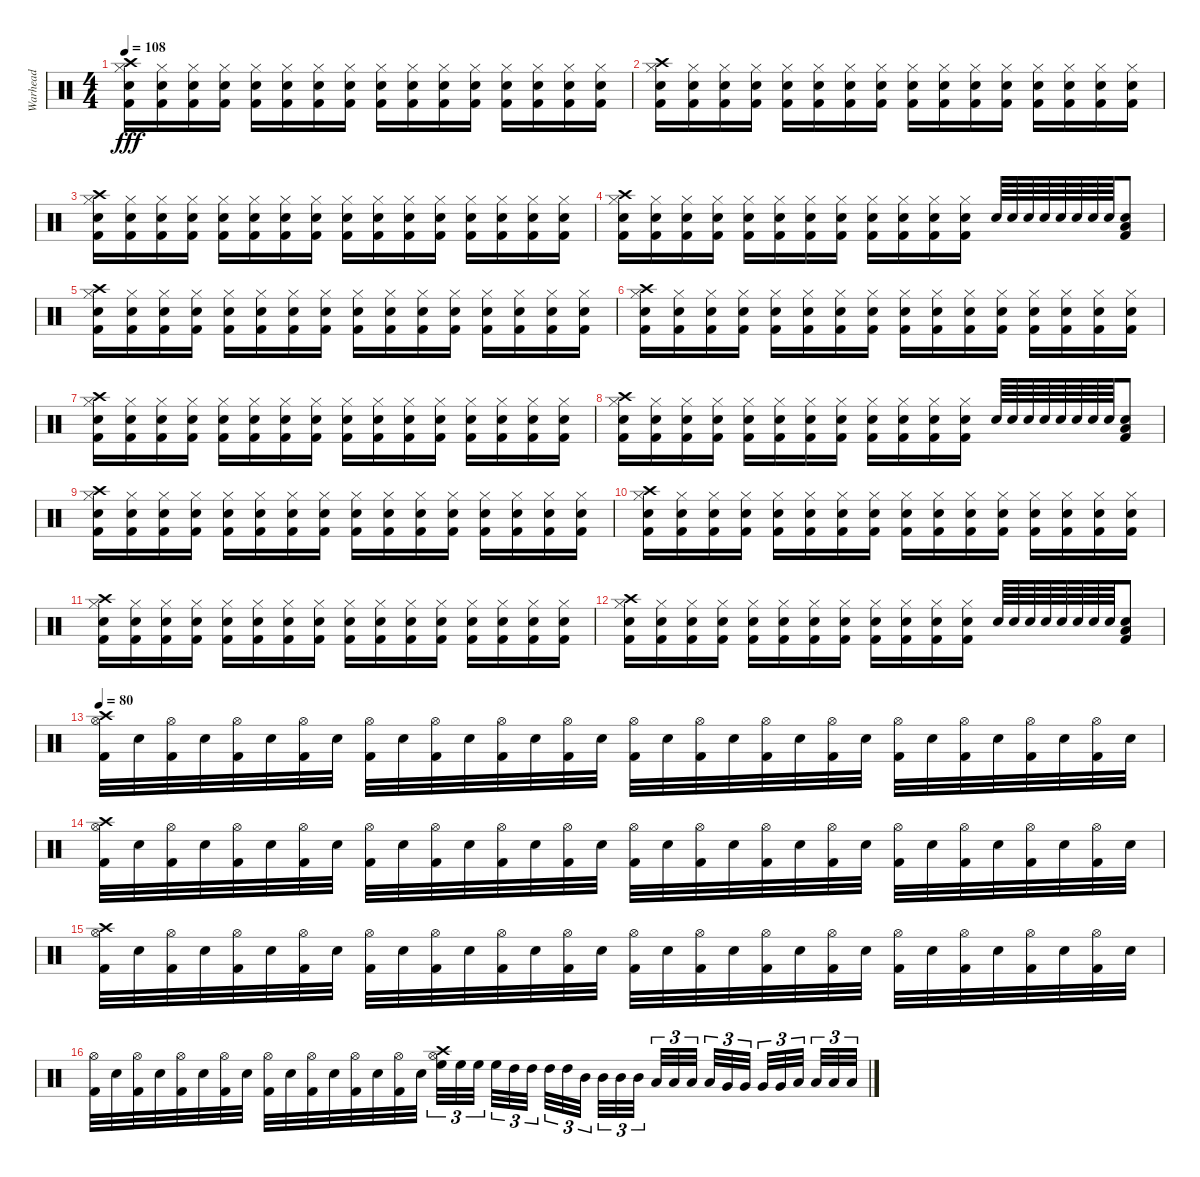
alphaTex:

\track ("Warhead" "Warhead") {instrument percussion}
\staff {score}
\articulation defaults
\ts (4 4)
\tempo 108
\clef neutral
\ks c
("Kick (hit) 2" "Electric Snare (hit)" "Crash high (hit)" "Hi-Hat (closed)").16{dy fff} ("Kick (hit) 2" "Electric Snare (hit)" "Hi-Hat (closed)").16 ("Kick (hit) 2" "Electric Snare (hit)" "Hi-Hat (closed)").16 ("Kick (hit) 2" "Electric Snare (hit)" "Hi-Hat (closed)").16 ("Kick (hit) 2" "Electric Snare (hit)" "Hi-Hat (closed)").16 ("Kick (hit) 2" "Electric Snare (hit)" "Hi-Hat (closed)").16 ("Kick (hit) 2" "Electric Snare (hit)" "Hi-Hat (closed)").16 ("Kick (hit) 2" "Electric Snare (hit)" "Hi-Hat (closed)").16 ("Kick (hit) 2" "Electric Snare (hit)" "Hi-Hat (closed)").16 ("Kick (hit) 2" "Electric Snare (hit)" "Hi-Hat (closed)").16 ("Kick (hit) 2" "Electric Snare (hit)" "Hi-Hat (closed)").16 ("Kick (hit) 2" "Electric Snare (hit)" "Hi-Hat (closed)").16 ("Kick (hit) 2" "Electric Snare (hit)" "Hi-Hat (closed)").16 ("Kick (hit) 2" "Electric Snare (hit)" "Hi-Hat (closed)").16 ("Kick (hit) 2" "Electric Snare (hit)" "Hi-Hat (closed)").16 ("Kick (hit) 2" "Electric Snare (hit)" "Hi-Hat (closed)").16 |
("Kick (hit) 2" "Electric Snare (hit)" "Crash high (hit)" "Hi-Hat (closed)").16 ("Kick (hit) 2" "Electric Snare (hit)" "Hi-Hat (closed)").16 ("Kick (hit) 2" "Electric Snare (hit)" "Hi-Hat (closed)").16 ("Kick (hit) 2" "Electric Snare (hit)" "Hi-Hat (closed)").16 ("Kick (hit) 2" "Electric Snare (hit)" "Hi-Hat (closed)").16 ("Kick (hit) 2" "Electric Snare (hit)" "Hi-Hat (closed)").16 ("Kick (hit) 2" "Electric Snare (hit)" "Hi-Hat (closed)").16 ("Kick (hit) 2" "Electric Snare (hit)" "Hi-Hat (closed)").16 ("Kick (hit) 2" "Electric Snare (hit)" "Hi-Hat (closed)").16 ("Kick (hit) 2" "Electric Snare (hit)" "Hi-Hat (closed)").16 ("Kick (hit) 2" "Electric Snare (hit)" "Hi-Hat (closed)").16 ("Kick (hit) 2" "Electric Snare (hit)" "Hi-Hat (closed)").16 ("Kick (hit) 2" "Electric Snare (hit)" "Hi-Hat (closed)").16 ("Kick (hit) 2" "Electric Snare (hit)" "Hi-Hat (closed)").16 ("Kick (hit) 2" "Electric Snare (hit)" "Hi-Hat (closed)").16 ("Kick (hit) 2" "Electric Snare (hit)" "Hi-Hat (closed)").16 |
("Kick (hit) 2" "Electric Snare (hit)" "Crash high (hit)" "Hi-Hat (closed)").16 ("Kick (hit) 2" "Electric Snare (hit)" "Hi-Hat (closed)").16 ("Kick (hit) 2" "Electric Snare (hit)" "Hi-Hat (closed)").16 ("Kick (hit) 2" "Electric Snare (hit)" "Hi-Hat (closed)").16 ("Kick (hit) 2" "Electric Snare (hit)" "Hi-Hat (closed)").16 ("Kick (hit) 2" "Electric Snare (hit)" "Hi-Hat (closed)").16 ("Kick (hit) 2" "Electric Snare (hit)" "Hi-Hat (closed)").16 ("Kick (hit) 2" "Electric Snare (hit)" "Hi-Hat (closed)").16 ("Kick (hit) 2" "Electric Snare (hit)" "Hi-Hat (closed)").16 ("Kick (hit) 2" "Electric Snare (hit)" "Hi-Hat (closed)").16 ("Kick (hit) 2" "Electric Snare (hit)" "Hi-Hat (closed)").16 ("Kick (hit) 2" "Electric Snare (hit)" "Hi-Hat (closed)").16 ("Kick (hit) 2" "Electric Snare (hit)" "Hi-Hat (closed)").16 ("Kick (hit) 2" "Electric Snare (hit)" "Hi-Hat (closed)").16 ("Kick (hit) 2" "Electric Snare (hit)" "Hi-Hat (closed)").16 ("Kick (hit) 2" "Electric Snare (hit)" "Hi-Hat (closed)").16 |
("Kick (hit) 2" "Electric Snare (hit)" "Crash high (hit)" "Hi-Hat (closed)").16 ("Kick (hit) 2" "Electric Snare (hit)" "Hi-Hat (closed)").16 ("Kick (hit) 2" "Electric Snare (hit)" "Hi-Hat (closed)").16 ("Kick (hit) 2" "Electric Snare (hit)" "Hi-Hat (closed)").16 ("Kick (hit) 2" "Electric Snare (hit)" "Hi-Hat (closed)").16 ("Kick (hit) 2" "Electric Snare (hit)" "Hi-Hat (closed)").16 ("Kick (hit) 2" "Electric Snare (hit)" "Hi-Hat (closed)").16 ("Kick (hit) 2" "Electric Snare (hit)" "Hi-Hat (closed)").16 ("Kick (hit) 2" "Electric Snare (hit)" "Hi-Hat (closed)").16 ("Kick (hit) 2" "Electric Snare (hit)" "Hi-Hat (closed)").16 ("Kick (hit) 2" "Electric Snare (hit)" "Hi-Hat (closed)").16 ("Kick (hit) 2" "Electric Snare (hit)" "Hi-Hat (closed)").16 "Electric Snare (hit)".64 "Electric Snare (hit)".64 "Electric Snare (hit)".64 "Electric Snare (hit)".64 "Electric Snare (hit)".64 "Electric Snare (hit)".64 "Electric Snare (hit)".64 "Electric Snare (hit)".64 ("Kick (hit) 2" "Snare (hit) 2" "Low Tom (hit)").8 |
("Kick (hit) 2" "Electric Snare (hit)" "Crash high (hit)" "Hi-Hat (closed)").16 ("Kick (hit) 2" "Electric Snare (hit)" "Hi-Hat (closed)").16 ("Kick (hit) 2" "Electric Snare (hit)" "Hi-Hat (closed)").16 ("Kick (hit) 2" "Electric Snare (hit)" "Hi-Hat (closed)").16 ("Kick (hit) 2" "Electric Snare (hit)" "Hi-Hat (closed)").16 ("Kick (hit) 2" "Electric Snare (hit)" "Hi-Hat (closed)").16 ("Kick (hit) 2" "Electric Snare (hit)" "Hi-Hat (closed)").16 ("Kick (hit) 2" "Electric Snare (hit)" "Hi-Hat (closed)").16 ("Kick (hit) 2" "Electric Snare (hit)" "Hi-Hat (closed)").16 ("Kick (hit) 2" "Electric Snare (hit)" "Hi-Hat (closed)").16 ("Kick (hit) 2" "Electric Snare (hit)" "Hi-Hat (closed)").16 ("Kick (hit) 2" "Electric Snare (hit)" "Hi-Hat (closed)").16 ("Kick (hit) 2" "Electric Snare (hit)" "Hi-Hat (closed)").16 ("Kick (hit) 2" "Electric Snare (hit)" "Hi-Hat (closed)").16 ("Kick (hit) 2" "Electric Snare (hit)" "Hi-Hat (closed)").16 ("Kick (hit) 2" "Electric Snare (hit)" "Hi-Hat (closed)").16 |
("Kick (hit) 2" "Electric Snare (hit)" "Crash high (hit)" "Hi-Hat (closed)").16 ("Kick (hit) 2" "Electric Snare (hit)" "Hi-Hat (closed)").16 ("Kick (hit) 2" "Electric Snare (hit)" "Hi-Hat (closed)").16 ("Kick (hit) 2" "Electric Snare (hit)" "Hi-Hat (closed)").16 ("Kick (hit) 2" "Electric Snare (hit)" "Hi-Hat (closed)").16 ("Kick (hit) 2" "Electric Snare (hit)" "Hi-Hat (closed)").16 ("Kick (hit) 2" "Electric Snare (hit)" "Hi-Hat (closed)").16 ("Kick (hit) 2" "Electric Snare (hit)" "Hi-Hat (closed)").16 ("Kick (hit) 2" "Electric Snare (hit)" "Hi-Hat (closed)").16 ("Kick (hit) 2" "Electric Snare (hit)" "Hi-Hat (closed)").16 ("Kick (hit) 2" "Electric Snare (hit)" "Hi-Hat (closed)").16 ("Kick (hit) 2" "Electric Snare (hit)" "Hi-Hat (closed)").16 ("Kick (hit) 2" "Electric Snare (hit)" "Hi-Hat (closed)").16 ("Kick (hit) 2" "Electric Snare (hit)" "Hi-Hat (closed)").16 ("Kick (hit) 2" "Electric Snare (hit)" "Hi-Hat (closed)").16 ("Kick (hit) 2" "Electric Snare (hit)" "Hi-Hat (closed)").16 |
("Kick (hit) 2" "Electric Snare (hit)" "Crash high (hit)" "Hi-Hat (closed)").16 ("Kick (hit) 2" "Electric Snare (hit)" "Hi-Hat (closed)").16 ("Kick (hit) 2" "Electric Snare (hit)" "Hi-Hat (closed)").16 ("Kick (hit) 2" "Electric Snare (hit)" "Hi-Hat (closed)").16 ("Kick (hit) 2" "Electric Snare (hit)" "Hi-Hat (closed)").16 ("Kick (hit) 2" "Electric Snare (hit)" "Hi-Hat (closed)").16 ("Kick (hit) 2" "Electric Snare (hit)" "Hi-Hat (closed)").16 ("Kick (hit) 2" "Electric Snare (hit)" "Hi-Hat (closed)").16 ("Kick (hit) 2" "Electric Snare (hit)" "Hi-Hat (closed)").16 ("Kick (hit) 2" "Electric Snare (hit)" "Hi-Hat (closed)").16 ("Kick (hit) 2" "Electric Snare (hit)" "Hi-Hat (closed)").16 ("Kick (hit) 2" "Electric Snare (hit)" "Hi-Hat (closed)").16 ("Kick (hit) 2" "Electric Snare (hit)" "Hi-Hat (closed)").16 ("Kick (hit) 2" "Electric Snare (hit)" "Hi-Hat (closed)").16 ("Kick (hit) 2" "Electric Snare (hit)" "Hi-Hat (closed)").16 ("Kick (hit) 2" "Electric Snare (hit)" "Hi-Hat (closed)").16 |
("Kick (hit) 2" "Electric Snare (hit)" "Crash high (hit)" "Hi-Hat (closed)").16 ("Kick (hit) 2" "Electric Snare (hit)" "Hi-Hat (closed)").16 ("Kick (hit) 2" "Electric Snare (hit)" "Hi-Hat (closed)").16 ("Kick (hit) 2" "Electric Snare (hit)" "Hi-Hat (closed)").16 ("Kick (hit) 2" "Electric Snare (hit)" "Hi-Hat (closed)").16 ("Kick (hit) 2" "Electric Snare (hit)" "Hi-Hat (closed)").16 ("Kick (hit) 2" "Electric Snare (hit)" "Hi-Hat (closed)").16 ("Kick (hit) 2" "Electric Snare (hit)" "Hi-Hat (closed)").16 ("Kick (hit) 2" "Electric Snare (hit)" "Hi-Hat (closed)").16 ("Kick (hit) 2" "Electric Snare (hit)" "Hi-Hat (closed)").16 ("Kick (hit) 2" "Electric Snare (hit)" "Hi-Hat (closed)").16 ("Kick (hit) 2" "Electric Snare (hit)" "Hi-Hat (closed)").16 "Electric Snare (hit)".64 "Electric Snare (hit)".64 "Electric Snare (hit)".64 "Electric Snare (hit)".64 "Electric Snare (hit)".64 "Electric Snare (hit)".64 "Electric Snare (hit)".64 "Electric Snare (hit)".64 ("Kick (hit) 2" "Snare (hit) 2" "Low Tom (hit)").8 |
("Kick (hit) 2" "Electric Snare (hit)" "Crash high (hit)" "Hi-Hat (closed)").16 ("Kick (hit) 2" "Electric Snare (hit)" "Hi-Hat (closed)").16 ("Kick (hit) 2" "Electric Snare (hit)" "Hi-Hat (closed)").16 ("Kick (hit) 2" "Electric Snare (hit)" "Hi-Hat (closed)").16 ("Kick (hit) 2" "Electric Snare (hit)" "Hi-Hat (closed)").16 ("Kick (hit) 2" "Electric Snare (hit)" "Hi-Hat (closed)").16 ("Kick (hit) 2" "Electric Snare (hit)" "Hi-Hat (closed)").16 ("Kick (hit) 2" "Electric Snare (hit)" "Hi-Hat (closed)").16 ("Kick (hit) 2" "Electric Snare (hit)" "Hi-Hat (closed)").16 ("Kick (hit) 2" "Electric Snare (hit)" "Hi-Hat (closed)").16 ("Kick (hit) 2" "Electric Snare (hit)" "Hi-Hat (closed)").16 ("Kick (hit) 2" "Electric Snare (hit)" "Hi-Hat (closed)").16 ("Kick (hit) 2" "Electric Snare (hit)" "Hi-Hat (closed)").16 ("Kick (hit) 2" "Electric Snare (hit)" "Hi-Hat (closed)").16 ("Kick (hit) 2" "Electric Snare (hit)" "Hi-Hat (closed)").16 ("Kick (hit) 2" "Electric Snare (hit)" "Hi-Hat (closed)").16 |
("Kick (hit) 2" "Electric Snare (hit)" "Crash high (hit)" "Hi-Hat (closed)").16 ("Kick (hit) 2" "Electric Snare (hit)" "Hi-Hat (closed)").16 ("Kick (hit) 2" "Electric Snare (hit)" "Hi-Hat (closed)").16 ("Kick (hit) 2" "Electric Snare (hit)" "Hi-Hat (closed)").16 ("Kick (hit) 2" "Electric Snare (hit)" "Hi-Hat (closed)").16 ("Kick (hit) 2" "Electric Snare (hit)" "Hi-Hat (closed)").16 ("Kick (hit) 2" "Electric Snare (hit)" "Hi-Hat (closed)").16 ("Kick (hit) 2" "Electric Snare (hit)" "Hi-Hat (closed)").16 ("Kick (hit) 2" "Electric Snare (hit)" "Hi-Hat (closed)").16 ("Kick (hit) 2" "Electric Snare (hit)" "Hi-Hat (closed)").16 ("Kick (hit) 2" "Electric Snare (hit)" "Hi-Hat (closed)").16 ("Kick (hit) 2" "Electric Snare (hit)" "Hi-Hat (closed)").16 ("Kick (hit) 2" "Electric Snare (hit)" "Hi-Hat (closed)").16 ("Kick (hit) 2" "Electric Snare (hit)" "Hi-Hat (closed)").16 ("Kick (hit) 2" "Electric Snare (hit)" "Hi-Hat (closed)").16 ("Kick (hit) 2" "Electric Snare (hit)" "Hi-Hat (closed)").16 |
("Kick (hit) 2" "Electric Snare (hit)" "Crash high (hit)" "Hi-Hat (closed)").16 ("Kick (hit) 2" "Electric Snare (hit)" "Hi-Hat (closed)").16 ("Kick (hit) 2" "Electric Snare (hit)" "Hi-Hat (closed)").16 ("Kick (hit) 2" "Electric Snare (hit)" "Hi-Hat (closed)").16 ("Kick (hit) 2" "Electric Snare (hit)" "Hi-Hat (closed)").16 ("Kick (hit) 2" "Electric Snare (hit)" "Hi-Hat (closed)").16 ("Kick (hit) 2" "Electric Snare (hit)" "Hi-Hat (closed)").16 ("Kick (hit) 2" "Electric Snare (hit)" "Hi-Hat (closed)").16 ("Kick (hit) 2" "Electric Snare (hit)" "Hi-Hat (closed)").16 ("Kick (hit) 2" "Electric Snare (hit)" "Hi-Hat (closed)").16 ("Kick (hit) 2" "Electric Snare (hit)" "Hi-Hat (closed)").16 ("Kick (hit) 2" "Electric Snare (hit)" "Hi-Hat (closed)").16 ("Kick (hit) 2" "Electric Snare (hit)" "Hi-Hat (closed)").16 ("Kick (hit) 2" "Electric Snare (hit)" "Hi-Hat (closed)").16 ("Kick (hit) 2" "Electric Snare (hit)" "Hi-Hat (closed)").16 ("Kick (hit) 2" "Electric Snare (hit)" "Hi-Hat (closed)").16 |
("Kick (hit) 2" "Electric Snare (hit)" "Crash high (hit)" "Hi-Hat (closed)").16 ("Kick (hit) 2" "Electric Snare (hit)" "Hi-Hat (closed)").16 ("Kick (hit) 2" "Electric Snare (hit)" "Hi-Hat (closed)").16 ("Kick (hit) 2" "Electric Snare (hit)" "Hi-Hat (closed)").16 ("Kick (hit) 2" "Electric Snare (hit)" "Hi-Hat (closed)").16 ("Kick (hit) 2" "Electric Snare (hit)" "Hi-Hat (closed)").16 ("Kick (hit) 2" "Electric Snare (hit)" "Hi-Hat (closed)").16 ("Kick (hit) 2" "Electric Snare (hit)" "Hi-Hat (closed)").16 ("Kick (hit) 2" "Electric Snare (hit)" "Hi-Hat (closed)").16 ("Kick (hit) 2" "Electric Snare (hit)" "Hi-Hat (closed)").16 ("Kick (hit) 2" "Electric Snare (hit)" "Hi-Hat (closed)").16 ("Kick (hit) 2" "Electric Snare (hit)" "Hi-Hat (closed)").16 "Electric Snare (hit)".64 "Electric Snare (hit)".64 "Electric Snare (hit)".64 "Electric Snare (hit)".64 "Electric Snare (hit)".64 "Electric Snare (hit)".64 "Electric Snare (hit)".64 "Electric Snare (hit)".64 ("Kick (hit) 2" "Snare (hit) 2" "Low Tom (hit)").8 |
\tempo 80
("Kick (hit) 2" "Crash high (hit)" "Hi-Hat (open)").32 "Electric Snare (hit)".32 ("Kick (hit) 2" "Hi-Hat (open)").32 "Electric Snare (hit)".32 ("Kick (hit) 2" "Hi-Hat (open)").32 "Electric Snare (hit)".32 ("Kick (hit) 2" "Hi-Hat (open)").32 "Electric Snare (hit)".32 ("Kick (hit) 2" "Hi-Hat (open)").32 "Electric Snare (hit)".32 ("Kick (hit) 2" "Hi-Hat (open)").32 "Electric Snare (hit)".32 ("Kick (hit) 2" "Hi-Hat (open)").32 "Electric Snare (hit)".32 ("Kick (hit) 2" "Hi-Hat (open)").32 "Electric Snare (hit)".32 ("Kick (hit) 2" "Hi-Hat (open)").32 "Electric Snare (hit)".32 ("Kick (hit) 2" "Hi-Hat (open)").32 "Electric Snare (hit)".32 ("Kick (hit) 2" "Hi-Hat (open)").32 "Electric Snare (hit)".32 ("Kick (hit) 2" "Hi-Hat (open)").32 "Electric Snare (hit)".32 ("Kick (hit) 2" "Hi-Hat (open)").32 "Electric Snare (hit)".32 ("Kick (hit) 2" "Hi-Hat (open)").32 "Electric Snare (hit)".32 ("Kick (hit) 2" "Hi-Hat (open)").32 "Electric Snare (hit)".32 ("Kick (hit) 2" "Hi-Hat (open)").32 "Electric Snare (hit)".32 |
("Kick (hit) 2" "Crash high (hit)" "Hi-Hat (open)").32 "Electric Snare (hit)".32 ("Kick (hit) 2" "Hi-Hat (open)").32 "Electric Snare (hit)".32 ("Kick (hit) 2" "Hi-Hat (open)").32 "Electric Snare (hit)".32 ("Kick (hit) 2" "Hi-Hat (open)").32 "Electric Snare (hit)".32 ("Kick (hit) 2" "Hi-Hat (open)").32 "Electric Snare (hit)".32 ("Kick (hit) 2" "Hi-Hat (open)").32 "Electric Snare (hit)".32 ("Kick (hit) 2" "Hi-Hat (open)").32 "Electric Snare (hit)".32 ("Kick (hit) 2" "Hi-Hat (open)").32 "Electric Snare (hit)".32 ("Kick (hit) 2" "Hi-Hat (open)").32 "Electric Snare (hit)".32 ("Kick (hit) 2" "Hi-Hat (open)").32 "Electric Snare (hit)".32 ("Kick (hit) 2" "Hi-Hat (open)").32 "Electric Snare (hit)".32 ("Kick (hit) 2" "Hi-Hat (open)").32 "Electric Snare (hit)".32 ("Kick (hit) 2" "Hi-Hat (open)").32 "Electric Snare (hit)".32 ("Kick (hit) 2" "Hi-Hat (open)").32 "Electric Snare (hit)".32 ("Kick (hit) 2" "Hi-Hat (open)").32 "Electric Snare (hit)".32 ("Kick (hit) 2" "Hi-Hat (open)").32 "Electric Snare (hit)".32 |
("Kick (hit) 2" "Crash high (hit)" "Hi-Hat (open)").32 "Electric Snare (hit)".32 ("Kick (hit) 2" "Hi-Hat (open)").32 "Electric Snare (hit)".32 ("Kick (hit) 2" "Hi-Hat (open)").32 "Electric Snare (hit)".32 ("Kick (hit) 2" "Hi-Hat (open)").32 "Electric Snare (hit)".32 ("Kick (hit) 2" "Hi-Hat (open)").32 "Electric Snare (hit)".32 ("Kick (hit) 2" "Hi-Hat (open)").32 "Electric Snare (hit)".32 ("Kick (hit) 2" "Hi-Hat (open)").32 "Electric Snare (hit)".32 ("Kick (hit) 2" "Hi-Hat (open)").32 "Electric Snare (hit)".32 ("Kick (hit) 2" "Hi-Hat (open)").32 "Electric Snare (hit)".32 ("Kick (hit) 2" "Hi-Hat (open)").32 "Electric Snare (hit)".32 ("Kick (hit) 2" "Hi-Hat (open)").32 "Electric Snare (hit)".32 ("Kick (hit) 2" "Hi-Hat (open)").32 "Electric Snare (hit)".32 ("Kick (hit) 2" "Hi-Hat (open)").32 "Electric Snare (hit)".32 ("Kick (hit) 2" "Hi-Hat (open)").32 "Electric Snare (hit)".32 ("Kick (hit) 2" "Hi-Hat (open)").32 "Electric Snare (hit)".32 ("Kick (hit) 2" "Hi-Hat (open)").32 "Electric Snare (hit)".32 |
("Kick (hit) 2" "Hi-Hat (open)").32 "Electric Snare (hit)".32 ("Kick (hit) 2" "Hi-Hat (open)").32 "Electric Snare (hit)".32 ("Kick (hit) 2" "Hi-Hat (open)").32 "Electric Snare (hit)".32 ("Kick (hit) 2" "Hi-Hat (open)").32 "Electric Snare (hit)".32 ("Kick (hit) 2" "Hi-Hat (open)").32 "Electric Snare (hit)".32 ("Kick (hit) 2" "Hi-Hat (open)").32 "Electric Snare (hit)".32 ("Kick (hit) 2" "Hi-Hat (open)").32 "Electric Snare (hit)".32 ("Kick (hit) 2" "Hi-Hat (open)").32 "Electric Snare (hit)".32 ("High Floor Tom (hit)" "Crash high (hit)" "Hi-Hat (open)").32{tu (3 2)} "High Floor Tom (hit)".32{tu (3 2)} "High Floor Tom (hit)".32{tu (3 2) beam splitsecondary} "High Floor Tom (hit)".32{tu (3 2)} "High Tom (hit)".32{tu (3 2)} "High Tom (hit)".32{tu (3 2) beam splitsecondary} "High Tom (hit)".32{tu (3 2)} "High Tom (hit)".32{tu (3 2)} "Mid Tom (hit)".32{tu (3 2) beam splitsecondary} "Mid Tom (hit)".32{tu (3 2)} "Mid Tom (hit)".32{tu (3 2)} "Mid Tom (hit)".32{tu (3 2)} "Low Tom (hit)".32{tu (3 2)} "Low Tom (hit)".32{tu (3 2)} "Low Tom (hit)".32{tu (3 2) beam splitsecondary} "Low Tom (hit)".32{tu (3 2)} "Very Low Tom (hit)".32{tu (3 2)} "Very Low Tom (hit)".32{tu (3 2) beam splitsecondary} "Very Low Tom (hit)".32{tu (3 2)} "Very Low Tom (hit)".32{tu (3 2)} "Low Floor Tom (hit)".32{tu (3 2) beam splitsecondary} "Low Floor Tom (hit)".32{tu (3 2)} "Low Floor Tom (hit)".32{tu (3 2)} "Low Floor Tom (hit)".32{tu (3 2)}
